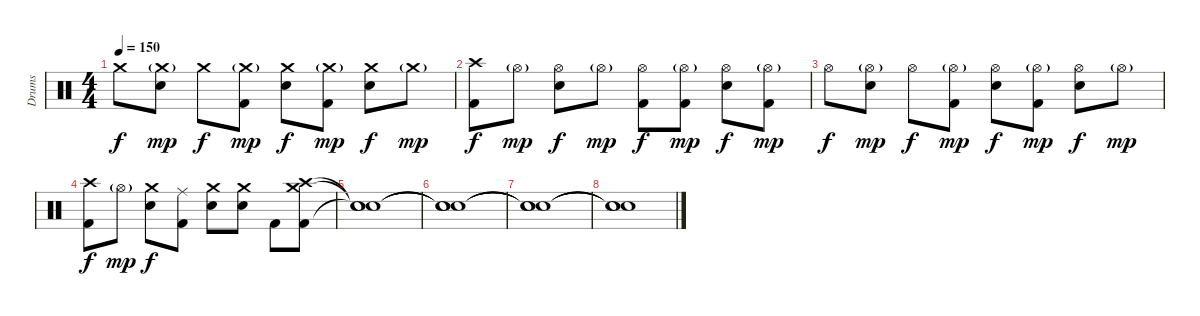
\track ("Drums" "Drums") {instrument percussion}
\staff {score}
\articulation defaults
\ts (4 4)
\tempo 150
\clef neutral
\ks c "Crash medium (hit)".8{dy f}
("Crash medium (hit)"{g} "Electric Snare (hit)").8{dy mp} "Crash medium (hit)".8{dy f} ("Crash medium (hit)"{g} "Kick (hit) 2").8{dy mp} ("Crash medium (hit)" "Electric Snare (hit)").8{dy f} ("Crash medium (hit)"{g} "Kick (hit) 2").8{dy mp} ("Crash medium (hit)" "Electric Snare (hit)").8{dy f} "Crash medium (hit)"{g}.8{dy mp} |
("Crash high (hit)" "Kick (hit) 2").8{dy f} "Hi-Hat (open)"{g}.8{dy mp} ("Hi-Hat (open)" "Electric Snare (hit)").8{dy f} "Hi-Hat (open)"{g}.8{dy mp} ("Hi-Hat (open)" "Kick (hit) 2").8{dy f} ("Hi-Hat (open)"{g} "Kick (hit) 2").8{dy mp} ("Hi-Hat (open)" "Electric Snare (hit)").8{dy f} ("Hi-Hat (open)"{g} "Kick (hit) 2").8{dy mp} |
"Hi-Hat (open)".8{dy f} ("Hi-Hat (open)"{g} "Electric Snare (hit)").8{dy mp} "Hi-Hat (open)".8{dy f} ("Hi-Hat (open)"{g} "Kick (hit) 2").8{dy mp} ("Hi-Hat (open)" "Electric Snare (hit)").8{dy f} ("Hi-Hat (open)"{g} "Kick (hit) 2").8{dy mp} ("Hi-Hat (open)" "Electric Snare (hit)").8{dy f} "Hi-Hat (open)"{g}.8{dy mp} |
("Crash high (hit)" "Kick (hit) 2").8{dy f} "Hi-Hat (open)"{g}.8{dy mp} ("Crash medium (hit)" "Electric Snare (hit)").8{dy f} ("Ride (middle)" "Kick (hit) 2").8 ("Crash medium (hit)" "Electric Snare (hit)").8 ("Crash medium (hit)" "Electric Snare (hit)").8 "Kick (hit) 2".8 ("Crash high (hit)" "Kick (hit) 2" "Crash medium (hit)").8 |
("Snare (hit)"{t} "Snare (hit)"{t} "Snare (hit)"{t}).1{volume 0} |
("Snare (hit)"{t} "Snare (hit)"{t} "Snare (hit)"{t}).1 |
("Snare (hit)"{t} "Snare (hit)"{t} "Snare (hit)"{t}).1 |
("Snare (hit)"{t} "Snare (hit)"{t} "Snare (hit)"{t}).1
